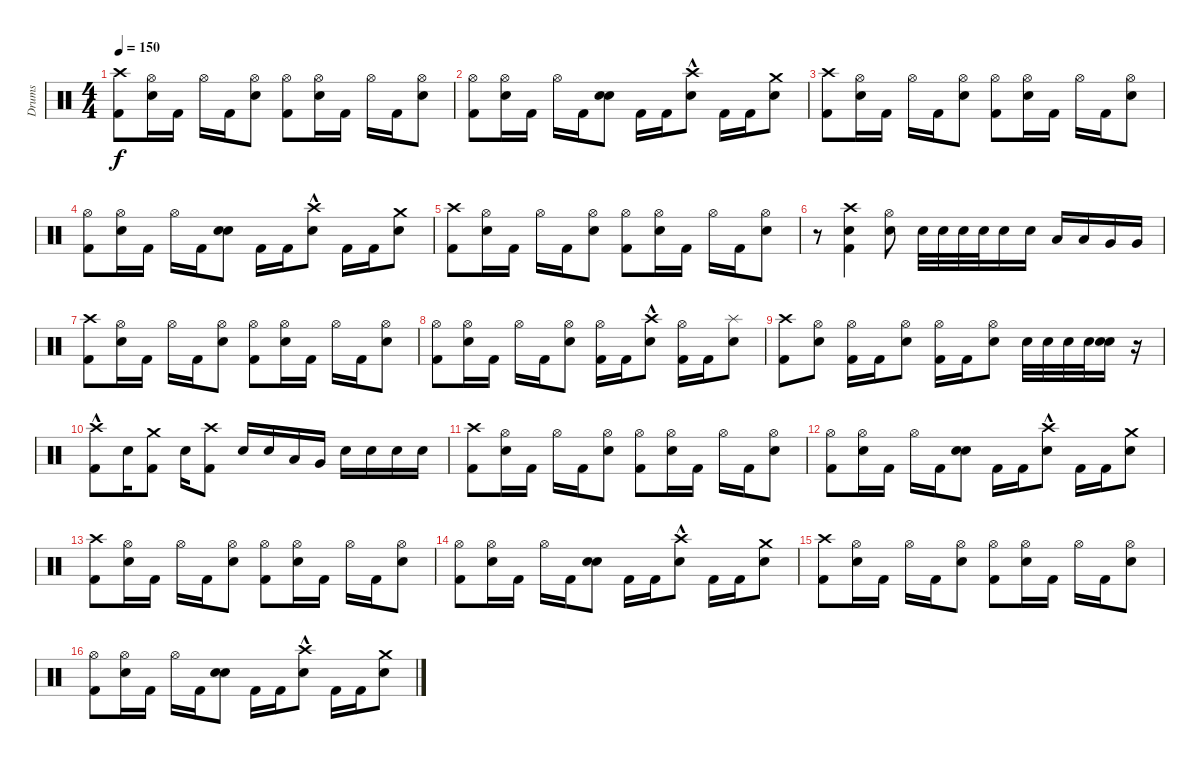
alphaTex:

\track ("Drums" "Drums") {instrument percussion}
\staff {score}
\articulation defaults
\ts (4 4)
\tempo 150
\clef neutral
\ks c
("Crash high (hit)" "Kick (hit) 2").8{dy f} ("Electric Snare (hit)" "Hi-Hat (open)").16 "Kick (hit) 2".16 "Hi-Hat (open)".16 "Kick (hit) 2".16 ("Electric Snare (hit)" "Hi-Hat (open)").8 ("Kick (hit) 2" "Hi-Hat (open)").8 ("Electric Snare (hit)" "Hi-Hat (open)").16 "Kick (hit) 2".16 "Hi-Hat (open)".16 "Kick (hit) 2".16 ("Electric Snare (hit)" "Hi-Hat (open)").8 |
("Kick (hit) 2" "Hi-Hat (open)").8 ("Electric Snare (hit)" "Hi-Hat (open)").16 "Kick (hit) 2".16 "Hi-Hat (open)".16 "Kick (hit) 2".16 ("Electric Snare (hit)" "Electric Snare (hit)").8 "Kick (hit) 2".16 "Kick (hit) 2".16 ("Crash high (hit)"{hac} "Electric Snare (hit)").8 "Kick (hit) 2".16 "Kick (hit) 2".16 ("Crash medium (hit)" "Electric Snare (hit)").8 |
("Crash high (hit)" "Kick (hit) 2").8 ("Electric Snare (hit)" "Hi-Hat (open)").16 "Kick (hit) 2".16 "Hi-Hat (open)".16 "Kick (hit) 2".16 ("Electric Snare (hit)" "Hi-Hat (open)").8 ("Kick (hit) 2" "Hi-Hat (open)").8 ("Electric Snare (hit)" "Hi-Hat (open)").16 "Kick (hit) 2".16 "Hi-Hat (open)".16 "Kick (hit) 2".16 ("Electric Snare (hit)" "Hi-Hat (open)").8 |
("Kick (hit) 2" "Hi-Hat (open)").8 ("Electric Snare (hit)" "Hi-Hat (open)").16 "Kick (hit) 2".16 "Hi-Hat (open)".16 "Kick (hit) 2".16 ("Electric Snare (hit)" "Electric Snare (hit)").8 "Kick (hit) 2".16 "Kick (hit) 2".16 ("Crash high (hit)"{hac} "Electric Snare (hit)").8 "Kick (hit) 2".16 "Kick (hit) 2".16 ("Crash medium (hit)" "Electric Snare (hit)").8 |
("Crash high (hit)" "Kick (hit) 2").8 ("Electric Snare (hit)" "Hi-Hat (open)").16 "Kick (hit) 2".16 "Hi-Hat (open)".16 "Kick (hit) 2".16 ("Electric Snare (hit)" "Hi-Hat (open)").8 ("Kick (hit) 2" "Hi-Hat (open)").8 ("Electric Snare (hit)" "Hi-Hat (open)").16 "Kick (hit) 2".16 "Hi-Hat (open)".16 "Kick (hit) 2".16 ("Electric Snare (hit)" "Hi-Hat (open)").8 |
r.8 ("Crash high (hit)" "Kick (hit) 2" "Electric Snare (hit)").4 ("Electric Snare (hit)" "Hi-Hat (open)").8 "Electric Snare (hit)".32 "Electric Snare (hit)".32 "Electric Snare (hit)".32 "Electric Snare (hit)".32 "Electric Snare (hit)".16 "Electric Snare (hit)".16 "Low Tom (hit)".16 "Low Tom (hit)".16 "Very Low Tom (hit)".16 "Very Low Tom (hit)".16 |
("Crash high (hit)" "Kick (hit) 2").8 ("Electric Snare (hit)" "Hi-Hat (open)").16 "Kick (hit) 2".16 "Hi-Hat (open)".16 "Kick (hit) 2".16 ("Electric Snare (hit)" "Hi-Hat (open)").8 ("Kick (hit) 2" "Hi-Hat (open)").8 ("Electric Snare (hit)" "Hi-Hat (open)").16 "Kick (hit) 2".16 "Hi-Hat (open)".16 "Kick (hit) 2".16 ("Electric Snare (hit)" "Hi-Hat (open)").8 |
("Kick (hit) 2" "Hi-Hat (open)").8 ("Electric Snare (hit)" "Hi-Hat (open)").16 "Kick (hit) 2".16 "Hi-Hat (open)".16 "Kick (hit) 2".16 ("Electric Snare (hit)" "Hi-Hat (open)").8 ("Kick (hit) 2" "Hi-Hat (open)").16 "Kick (hit) 2".16 ("Electric Snare (hit)" "Crash high (hit)"{hac}).8 ("Hi-Hat (open)" "Kick (hit) 2").16 "Kick (hit) 2".16 ("Electric Snare (hit)" "Splash (hit)").8 |
("Crash high (hit)" "Kick (hit) 2").8 ("Electric Snare (hit)" "Hi-Hat (open)").8 ("Hi-Hat (open)" "Kick (hit) 2").16 "Kick (hit) 2".16 ("Electric Snare (hit)" "Hi-Hat (open)").8 ("Kick (hit) 2" "Hi-Hat (open)").16 "Kick (hit) 2".16 ("Electric Snare (hit)" "Hi-Hat (open)").8 "Electric Snare (hit)".32 "Electric Snare (hit)".32 "Electric Snare (hit)".32 "Electric Snare (hit)".32 ("Electric Snare (hit)" "Electric Snare (hit)").16 r.16 |
("Kick (hit) 2" "Crash high (hit)"{hac}).8 "Electric Snare (hit)".16 ("Kick (hit) 2" "Crash medium (hit)").8 "Electric Snare (hit)".16 ("Kick (hit) 2" "Crash high (hit)").8 "Electric Snare (hit)".16 "Electric Snare (hit)".16 "Low Tom (hit)".16 "Very Low Tom (hit)".16 "Electric Snare (hit)".16 "Electric Snare (hit)".16 "Electric Snare (hit)".16 "Electric Snare (hit)".16 |
("Crash high (hit)" "Kick (hit) 2").8 ("Electric Snare (hit)" "Hi-Hat (open)").16 "Kick (hit) 2".16 "Hi-Hat (open)".16 "Kick (hit) 2".16 ("Electric Snare (hit)" "Hi-Hat (open)").8 ("Kick (hit) 2" "Hi-Hat (open)").8 ("Electric Snare (hit)" "Hi-Hat (open)").16 "Kick (hit) 2".16 "Hi-Hat (open)".16 "Kick (hit) 2".16 ("Electric Snare (hit)" "Hi-Hat (open)").8 |
("Kick (hit) 2" "Hi-Hat (open)").8 ("Electric Snare (hit)" "Hi-Hat (open)").16 "Kick (hit) 2".16 "Hi-Hat (open)".16 "Kick (hit) 2".16 ("Electric Snare (hit)" "Electric Snare (hit)").8 "Kick (hit) 2".16 "Kick (hit) 2".16 ("Crash high (hit)"{hac} "Electric Snare (hit)").8 "Kick (hit) 2".16 "Kick (hit) 2".16 ("Crash medium (hit)" "Electric Snare (hit)").8 |
("Crash high (hit)" "Kick (hit) 2").8 ("Electric Snare (hit)" "Hi-Hat (open)").16 "Kick (hit) 2".16 "Hi-Hat (open)".16 "Kick (hit) 2".16 ("Electric Snare (hit)" "Hi-Hat (open)").8 ("Kick (hit) 2" "Hi-Hat (open)").8 ("Electric Snare (hit)" "Hi-Hat (open)").16 "Kick (hit) 2".16 "Hi-Hat (open)".16 "Kick (hit) 2".16 ("Electric Snare (hit)" "Hi-Hat (open)").8 |
("Kick (hit) 2" "Hi-Hat (open)").8 ("Electric Snare (hit)" "Hi-Hat (open)").16 "Kick (hit) 2".16 "Hi-Hat (open)".16 "Kick (hit) 2".16 ("Electric Snare (hit)" "Electric Snare (hit)").8 "Kick (hit) 2".16 "Kick (hit) 2".16 ("Crash high (hit)"{hac} "Electric Snare (hit)").8 "Kick (hit) 2".16 "Kick (hit) 2".16 ("Crash medium (hit)" "Electric Snare (hit)").8 |
("Crash high (hit)" "Kick (hit) 2").8 ("Electric Snare (hit)" "Hi-Hat (open)").16 "Kick (hit) 2".16 "Hi-Hat (open)".16 "Kick (hit) 2".16 ("Electric Snare (hit)" "Hi-Hat (open)").8 ("Kick (hit) 2" "Hi-Hat (open)").8 ("Electric Snare (hit)" "Hi-Hat (open)").16 "Kick (hit) 2".16 "Hi-Hat (open)".16 "Kick (hit) 2".16 ("Electric Snare (hit)" "Hi-Hat (open)").8 |
("Kick (hit) 2" "Hi-Hat (open)").8 ("Electric Snare (hit)" "Hi-Hat (open)").16 "Kick (hit) 2".16 "Hi-Hat (open)".16 "Kick (hit) 2".16 ("Electric Snare (hit)" "Electric Snare (hit)").8 "Kick (hit) 2".16 "Kick (hit) 2".16 ("Crash high (hit)"{hac} "Electric Snare (hit)").8 "Kick (hit) 2".16 "Kick (hit) 2".16 ("Crash medium (hit)" "Electric Snare (hit)").8
